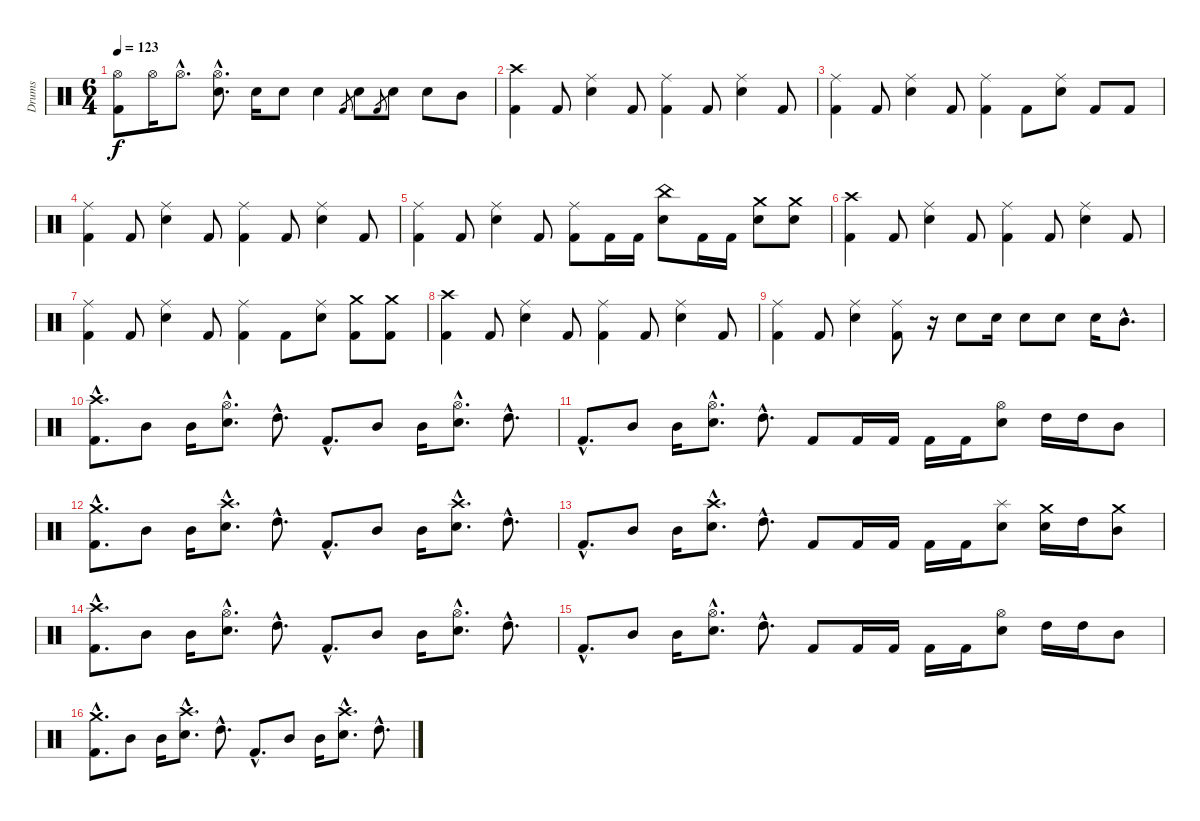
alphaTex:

\track ("Drums" "Drums") {instrument percussion}
\staff {score}
\articulation defaults
\ts (6 4)
\tempo 123
\clef neutral
\ks c
("Hi-Hat (open)" "Kick (hit) 2").8{dy f} "Hi-Hat (open)".16 "Hi-Hat (open)"{hac}.8{d} ("Hi-Hat (open)"{hac} "Snare (hit) 2"{hac}).8{d} "Snare (hit) 2".16 "Snare (hit) 2".8 "Snare (hit) 2".4 "Kick (hit) 2".8{gr} "Snare (hit) 2".8 "Kick (hit) 2".8{gr} "Snare (hit) 2".8 "Snare (hit) 2".8 "Mid Tom (hit)".8 |
("Crash high (hit)" "Kick (hit) 2").4 "Kick (hit) 2".8 ("Ride (middle)" "Snare (hit) 2").4 "Kick (hit) 2".8 ("Ride (middle)" "Kick (hit) 2").4 "Kick (hit) 2".8 ("Ride (middle)" "Snare (hit) 2").4 "Kick (hit) 2".8 |
("Ride (middle)" "Kick (hit) 2").4 "Kick (hit) 2".8 ("Ride (middle)" "Snare (hit) 2").4 "Kick (hit) 2".8 ("Ride (middle)" "Kick (hit) 2").4 "Kick (hit) 2".8 ("Ride (middle)" "Snare (hit) 2").8 "Kick (hit) 2".8 "Kick (hit) 2".8 |
("Ride (middle)" "Kick (hit) 2").4 "Kick (hit) 2".8 ("Ride (middle)" "Snare (hit) 2").4 "Kick (hit) 2".8 ("Ride (middle)" "Kick (hit) 2").4 "Kick (hit) 2".8 ("Ride (middle)" "Snare (hit) 2").4 "Kick (hit) 2".8 |
("Ride (middle)" "Kick (hit) 2").4 "Kick (hit) 2".8 ("Ride (middle)" "Snare (hit) 2").4 "Kick (hit) 2".8 ("Ride (middle)" "Kick (hit) 2").8 "Kick (hit) 2".16 "Kick (hit) 2".16 ("China (hit)" "Snare (hit) 2").8 "Kick (hit) 2".16 "Kick (hit) 2".16 ("Crash medium (hit)" "Snare (hit) 2").8 ("Crash medium (hit)" "Snare (hit) 2").8 |
("Crash high (hit)" "Kick (hit) 2").4 "Kick (hit) 2".8 ("Ride (middle)" "Snare (hit) 2").4 "Kick (hit) 2".8 ("Ride (middle)" "Kick (hit) 2").4 "Kick (hit) 2".8 ("Ride (middle)" "Snare (hit) 2").4 "Kick (hit) 2".8 |
("Ride (middle)" "Kick (hit) 2").4 "Kick (hit) 2".8 ("Ride (middle)" "Snare (hit) 2").4 "Kick (hit) 2".8 ("Ride (middle)" "Kick (hit) 2").4 "Kick (hit) 2".8 ("Ride (middle)" "Snare (hit) 2").8 ("Crash medium (hit)" "Kick (hit) 2").8 ("Crash medium (hit)" "Kick (hit) 2").8 |
("Crash high (hit)" "Kick (hit) 2").4 "Kick (hit) 2".8 ("Ride (middle)" "Snare (hit) 2").4 "Kick (hit) 2".8 ("Ride (middle)" "Kick (hit) 2").4 "Kick (hit) 2".8 ("Ride (middle)" "Snare (hit) 2").4 "Kick (hit) 2".8 |
("Ride (middle)" "Kick (hit) 2").4 "Kick (hit) 2".8 ("Ride (middle)" "Snare (hit) 2").4 ("Ride (middle)" "Kick (hit) 2").8 r.16 "Snare (hit) 2".8 "Snare (hit) 2".16 "Snare (hit) 2".8 "Snare (hit) 2".8 "Snare (hit) 2".16 "Mid Tom (hit)"{hac}.8{d} |
("Crash high (hit)"{hac} "Kick (hit) 2"{hac}).8{d} "Mid Tom (hit)".8 "Mid Tom (hit)".16 ("Hi-Hat (open)"{hac} "Snare (hit) 2"{hac}).8{d} "High Tom (hit)"{hac}.8{d} "Kick (hit) 2"{hac}.8{d} "Mid Tom (hit)".8 "Mid Tom (hit)".16 ("Hi-Hat (open)"{hac} "Snare (hit) 2"{hac}).8{d} "High Tom (hit)"{hac}.8{d} |
"Kick (hit) 2"{hac}.8{d} "Mid Tom (hit)".8 "Mid Tom (hit)".16 ("Hi-Hat (open)"{hac} "Snare (hit) 2"{hac}).8{d} "High Tom (hit)"{hac}.8{d} "Kick (hit) 2".8 "Kick (hit) 2".16 "Kick (hit) 2".16 "Kick (hit) 2".16 "Kick (hit) 2".16 ("Hi-Hat (open)" "Snare (hit) 2").8 "High Tom (hit)".16 "High Tom (hit)".16 "Mid Tom (hit)".8 |
("Crash medium (hit)"{hac} "Kick (hit) 2"{hac}).8{d} "Mid Tom (hit)".8 "Mid Tom (hit)".16 ("Crash high (hit)"{hac} "Snare (hit) 2"{hac}).8{d} "High Tom (hit)"{hac}.8{d} "Kick (hit) 2"{hac}.8{d} "Mid Tom (hit)".8 "Mid Tom (hit)".16 ("Crash high (hit)"{hac} "Snare (hit) 2"{hac}).8{d} "High Tom (hit)"{hac}.8{d} |
"Kick (hit) 2"{hac}.8{d} "Mid Tom (hit)".8 "Mid Tom (hit)".16 ("Crash high (hit)"{hac} "Snare (hit) 2"{hac}).8{d} "High Tom (hit)"{hac}.8{d} "Kick (hit) 2".8 "Kick (hit) 2".16 "Kick (hit) 2".16 "Kick (hit) 2".16 "Kick (hit) 2".16 ("Splash (hit)" "Snare (hit) 2").8 ("Crash medium (hit)" "Snare (hit) 2").16 "High Tom (hit)".16 ("Crash medium (hit)" "Mid Tom (hit)").8 |
("Crash high (hit)"{hac} "Kick (hit) 2"{hac}).8{d} "Mid Tom (hit)".8 "Mid Tom (hit)".16 ("Hi-Hat (open)"{hac} "Snare (hit) 2"{hac}).8{d} "High Tom (hit)"{hac}.8{d} "Kick (hit) 2"{hac}.8{d} "Mid Tom (hit)".8 "Mid Tom (hit)".16 ("Hi-Hat (open)"{hac} "Snare (hit) 2"{hac}).8{d} "High Tom (hit)"{hac}.8{d} |
"Kick (hit) 2"{hac}.8{d} "Mid Tom (hit)".8 "Mid Tom (hit)".16 ("Hi-Hat (open)"{hac} "Snare (hit) 2"{hac}).8{d} "High Tom (hit)"{hac}.8{d} "Kick (hit) 2".8 "Kick (hit) 2".16 "Kick (hit) 2".16 "Kick (hit) 2".16 "Kick (hit) 2".16 ("Hi-Hat (open)" "Snare (hit) 2").8 "High Tom (hit)".16 "High Tom (hit)".16 "Mid Tom (hit)".8 |
("Crash medium (hit)"{hac} "Kick (hit) 2"{hac}).8{d} "Mid Tom (hit)".8 "Mid Tom (hit)".16 ("Crash high (hit)"{hac} "Snare (hit) 2"{hac}).8{d} "High Tom (hit)"{hac}.8{d} "Kick (hit) 2"{hac}.8{d} "Mid Tom (hit)".8 "Mid Tom (hit)".16 ("Crash high (hit)"{hac} "Snare (hit) 2"{hac}).8{d} "High Tom (hit)"{hac}.8{d}
